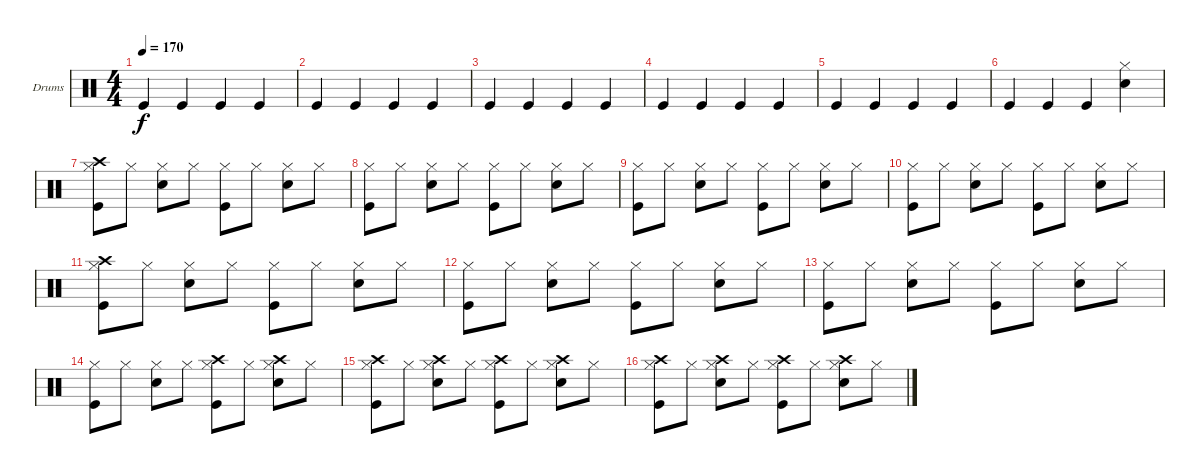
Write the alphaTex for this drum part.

\defaultSystemsLayout 4
\bracketExtendMode groupsimilarinstruments
\firstSystemTrackNameOrientation horizontal
\otherSystemsTrackNameOrientation horizontal
\track ("Барабаны" "Drums") {instrument percussion}
\staff {score}
\articulation defaults
\ts (4 4)
\tempo 170
\clef neutral
\ks c "Kick (hit)".4{dy f} "Kick (hit)".4 "Kick (hit)".4 "Kick (hit)".4
|
"Kick (hit)".4 "Kick (hit)".4 "Kick (hit)".4 "Kick (hit)".4 |
"Kick (hit)".4 "Kick (hit)".4 "Kick (hit)".4 "Kick (hit)".4 |
"Kick (hit)".4 "Kick (hit)".4 "Kick (hit)".4 "Kick (hit)".4 |
"Kick (hit)".4 "Kick (hit)".4 "Kick (hit)".4 "Kick (hit)".4 |
"Kick (hit)".4 "Kick (hit)".4 "Kick (hit)".4 ("Snare (hit) 2" "Hi-Hat (closed)").4 |
("Kick (hit)" "Hi-Hat (closed)" "Crash high (hit)").8 "Hi-Hat (closed)".8 ("Snare (hit) 2" "Hi-Hat (closed)").8 "Hi-Hat (closed)".8 ("Kick (hit)" "Hi-Hat (closed)").8 "Hi-Hat (closed)".8 ("Snare (hit) 2" "Hi-Hat (closed)").8 "Hi-Hat (closed)".8 |
("Kick (hit)" "Hi-Hat (closed)").8 "Hi-Hat (closed)".8 ("Snare (hit) 2" "Hi-Hat (closed)").8 "Hi-Hat (closed)".8 ("Kick (hit)" "Hi-Hat (closed)").8 "Hi-Hat (closed)".8 ("Snare (hit) 2" "Hi-Hat (closed)").8 "Hi-Hat (closed)".8 |
("Kick (hit)" "Hi-Hat (closed)").8 "Hi-Hat (closed)".8 ("Snare (hit) 2" "Hi-Hat (closed)").8 "Hi-Hat (closed)".8 ("Kick (hit)" "Hi-Hat (closed)").8 "Hi-Hat (closed)".8 ("Snare (hit) 2" "Hi-Hat (closed)").8 "Hi-Hat (closed)".8 |
("Kick (hit)" "Hi-Hat (closed)").8 "Hi-Hat (closed)".8 ("Snare (hit) 2" "Hi-Hat (closed)").8 "Hi-Hat (closed)".8 ("Kick (hit)" "Hi-Hat (closed)").8 "Hi-Hat (closed)".8 ("Snare (hit) 2" "Hi-Hat (closed)").8 "Hi-Hat (closed)".8 |
("Kick (hit)" "Hi-Hat (closed)" "Crash high (hit)").8 "Hi-Hat (closed)".8 ("Snare (hit) 2" "Hi-Hat (closed)").8 "Hi-Hat (closed)".8 ("Kick (hit)" "Hi-Hat (closed)").8 "Hi-Hat (closed)".8 ("Snare (hit) 2" "Hi-Hat (closed)").8 "Hi-Hat (closed)".8 |
("Kick (hit)" "Hi-Hat (closed)").8 "Hi-Hat (closed)".8 ("Snare (hit) 2" "Hi-Hat (closed)").8 "Hi-Hat (closed)".8 ("Kick (hit)" "Hi-Hat (closed)").8 "Hi-Hat (closed)".8 ("Snare (hit) 2" "Hi-Hat (closed)").8 "Hi-Hat (closed)".8 |
("Kick (hit)" "Hi-Hat (closed)").8 "Hi-Hat (closed)".8 ("Snare (hit) 2" "Hi-Hat (closed)").8 "Hi-Hat (closed)".8 ("Kick (hit)" "Hi-Hat (closed)").8 "Hi-Hat (closed)".8 ("Snare (hit) 2" "Hi-Hat (closed)").8 "Hi-Hat (closed)".8 |
("Kick (hit)" "Hi-Hat (closed)").8 "Hi-Hat (closed)".8 ("Snare (hit) 2" "Hi-Hat (closed)").8 "Hi-Hat (closed)".8 ("Kick (hit)" "Hi-Hat (closed)" "Crash high (hit)").8 "Hi-Hat (closed)".8 ("Snare (hit) 2" "Hi-Hat (closed)" "Crash high (hit)").8 "Hi-Hat (closed)".8 |
("Kick (hit)" "Hi-Hat (closed)" "Crash high (hit)").8 "Hi-Hat (closed)".8 ("Snare (hit) 2" "Hi-Hat (closed)" "Crash high (hit)").8 "Hi-Hat (closed)".8 ("Kick (hit)" "Hi-Hat (closed)" "Crash high (hit)").8 "Hi-Hat (closed)".8 ("Snare (hit) 2" "Hi-Hat (closed)" "Crash high (hit)").8 "Hi-Hat (closed)".8 |
("Kick (hit)" "Hi-Hat (closed)" "Crash high (hit)").8 "Hi-Hat (closed)".8 ("Snare (hit) 2" "Hi-Hat (closed)" "Crash high (hit)").8 "Hi-Hat (closed)".8 ("Kick (hit)" "Hi-Hat (closed)" "Crash high (hit)").8 "Hi-Hat (closed)".8 ("Snare (hit) 2" "Hi-Hat (closed)" "Crash high (hit)").8 "Hi-Hat (closed)".8
